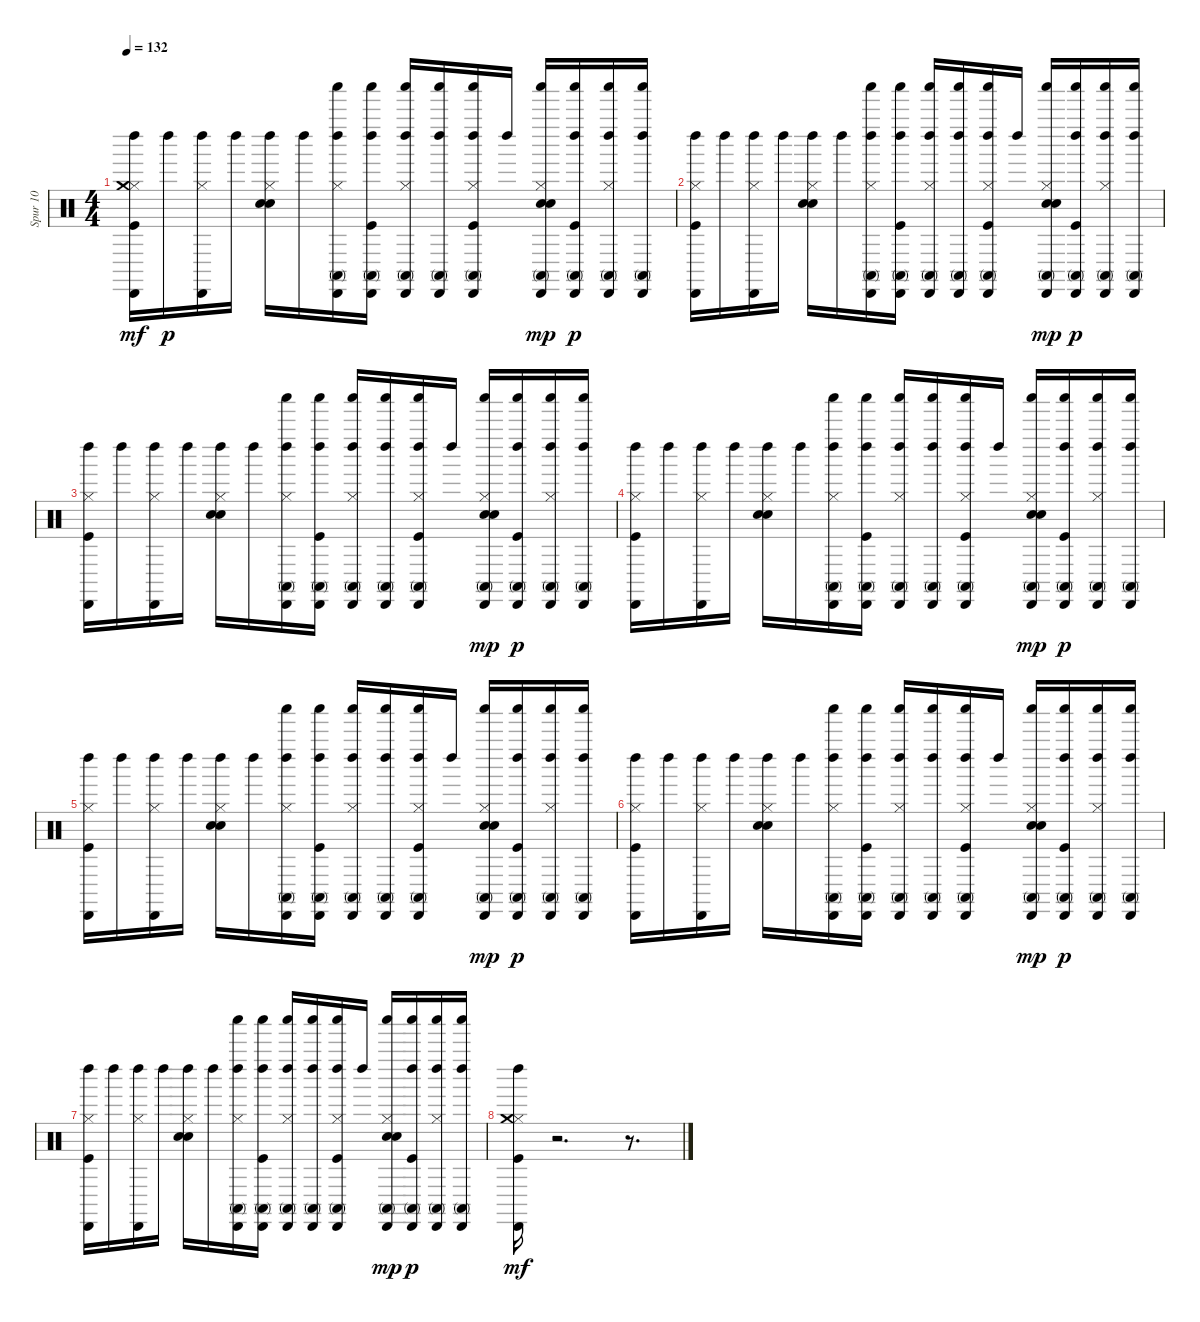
\track ("Spur 10" "Spur 10") {instrument percussion}
\staff {score}
\articulation defaults
\ts (4 4)
\tempo 132
\clef neutral
\ks c
("Kick (hit)" "Hi-Hat (closed)" "Cabasa (hit)" "Left Maraca (hit)" "Crash medium (hit)").16{dy mf} "Left Maraca (hit)".16{dy p} ("Hi-Hat (closed)" "Cabasa (hit)" "Left Maraca (hit)").16 "Left Maraca (hit)".16 ("Hi-Hat (closed)" "Snare (hit) 2" "Hand Clap (hit)" "Left Maraca (hit)").16 "Left Maraca (hit)".16 ("Shaker (hit)" "Hi-Hat (closed)" "Cabasa (hit)" "Conga high (mute)" "Left Maraca (hit)").16 ("Shaker (hit)" "Kick (hit)" "Cabasa (hit)" "Conga high (mute)" "Left Maraca (hit)").16 ("Shaker (hit)" "Hi-Hat (closed)" "Cabasa (hit)" "Conga high (mute)" "Left Maraca (hit)").16 ("Shaker (hit)" "Cabasa (hit)" "Conga high (mute)" "Left Maraca (hit)").16 ("Shaker (hit)" "Kick (hit)" "Hi-Hat (closed)" "Cabasa (hit)" "Conga high (mute)" "Left Maraca (hit)").16 "Left Maraca (hit)".16 ("Shaker (hit)" "Hi-Hat (closed)" "Snare (hit) 2" "Cabasa (hit)" "Conga high (mute)" "Hand Clap (hit)").16{dy mp} ("Shaker (hit)" "Kick (hit)" "Cabasa (hit)" "Conga high (mute)" "Left Maraca (hit)").16{dy p} ("Shaker (hit)" "Hi-Hat (closed)" "Cabasa (hit)" "Conga high (mute)" "Left Maraca (hit)").16 ("Shaker (hit)" "Cabasa (hit)" "Conga high (mute)" "Left Maraca (hit)").16 |
("Kick (hit)" "Hi-Hat (closed)" "Cabasa (hit)" "Left Maraca (hit)").16 "Left Maraca (hit)".16 ("Hi-Hat (closed)" "Cabasa (hit)" "Left Maraca (hit)").16 "Left Maraca (hit)".16 ("Hi-Hat (closed)" "Snare (hit) 2" "Hand Clap (hit)" "Left Maraca (hit)").16 "Left Maraca (hit)".16 ("Shaker (hit)" "Hi-Hat (closed)" "Cabasa (hit)" "Conga high (mute)" "Left Maraca (hit)").16 ("Shaker (hit)" "Kick (hit)" "Cabasa (hit)" "Conga high (mute)" "Left Maraca (hit)").16 ("Shaker (hit)" "Hi-Hat (closed)" "Cabasa (hit)" "Conga high (mute)" "Left Maraca (hit)").16 ("Shaker (hit)" "Cabasa (hit)" "Conga high (mute)" "Left Maraca (hit)").16 ("Shaker (hit)" "Kick (hit)" "Hi-Hat (closed)" "Cabasa (hit)" "Conga high (mute)" "Left Maraca (hit)").16 "Left Maraca (hit)".16 ("Shaker (hit)" "Hi-Hat (closed)" "Snare (hit) 2" "Cabasa (hit)" "Conga high (mute)" "Hand Clap (hit)").16{dy mp} ("Shaker (hit)" "Kick (hit)" "Cabasa (hit)" "Conga high (mute)" "Left Maraca (hit)").16{dy p} ("Shaker (hit)" "Hi-Hat (closed)" "Cabasa (hit)" "Conga high (mute)" "Left Maraca (hit)").16 ("Shaker (hit)" "Cabasa (hit)" "Conga high (mute)" "Left Maraca (hit)").16 |
("Kick (hit)" "Hi-Hat (closed)" "Cabasa (hit)" "Left Maraca (hit)").16 "Left Maraca (hit)".16 ("Hi-Hat (closed)" "Cabasa (hit)" "Left Maraca (hit)").16 "Left Maraca (hit)".16 ("Hi-Hat (closed)" "Snare (hit) 2" "Hand Clap (hit)" "Left Maraca (hit)").16 "Left Maraca (hit)".16 ("Shaker (hit)" "Hi-Hat (closed)" "Cabasa (hit)" "Conga high (mute)" "Left Maraca (hit)").16 ("Shaker (hit)" "Kick (hit)" "Cabasa (hit)" "Conga high (mute)" "Left Maraca (hit)").16 ("Shaker (hit)" "Hi-Hat (closed)" "Cabasa (hit)" "Conga high (mute)" "Left Maraca (hit)").16 ("Shaker (hit)" "Cabasa (hit)" "Conga high (mute)" "Left Maraca (hit)").16 ("Shaker (hit)" "Kick (hit)" "Hi-Hat (closed)" "Cabasa (hit)" "Conga high (mute)" "Left Maraca (hit)").16 "Left Maraca (hit)".16 ("Shaker (hit)" "Hi-Hat (closed)" "Snare (hit) 2" "Cabasa (hit)" "Conga high (mute)" "Hand Clap (hit)").16{dy mp} ("Shaker (hit)" "Kick (hit)" "Cabasa (hit)" "Conga high (mute)" "Left Maraca (hit)").16{dy p} ("Shaker (hit)" "Hi-Hat (closed)" "Cabasa (hit)" "Conga high (mute)" "Left Maraca (hit)").16 ("Shaker (hit)" "Cabasa (hit)" "Conga high (mute)" "Left Maraca (hit)").16 |
("Kick (hit)" "Hi-Hat (closed)" "Cabasa (hit)" "Left Maraca (hit)").16 "Left Maraca (hit)".16 ("Hi-Hat (closed)" "Cabasa (hit)" "Left Maraca (hit)").16 "Left Maraca (hit)".16 ("Hi-Hat (closed)" "Snare (hit) 2" "Hand Clap (hit)" "Left Maraca (hit)").16 "Left Maraca (hit)".16 ("Shaker (hit)" "Hi-Hat (closed)" "Conga high (mute)" "Cabasa (hit)" "Left Maraca (hit)").16 ("Shaker (hit)" "Kick (hit)" "Conga high (mute)" "Cabasa (hit)" "Left Maraca (hit)").16 ("Shaker (hit)" "Hi-Hat (closed)" "Conga high (mute)" "Cabasa (hit)" "Left Maraca (hit)").16 ("Shaker (hit)" "Conga high (mute)" "Cabasa (hit)" "Left Maraca (hit)").16 ("Shaker (hit)" "Kick (hit)" "Hi-Hat (closed)" "Conga high (mute)" "Cabasa (hit)" "Left Maraca (hit)").16 "Left Maraca (hit)".16 ("Shaker (hit)" "Hi-Hat (closed)" "Snare (hit) 2" "Conga high (mute)" "Cabasa (hit)" "Hand Clap (hit)").16{dy mp} ("Shaker (hit)" "Kick (hit)" "Conga high (mute)" "Cabasa (hit)" "Left Maraca (hit)").16{dy p} ("Shaker (hit)" "Hi-Hat (closed)" "Conga high (mute)" "Cabasa (hit)" "Left Maraca (hit)").16 ("Shaker (hit)" "Conga high (mute)" "Cabasa (hit)" "Left Maraca (hit)").16 |
("Kick (hit)" "Hi-Hat (closed)" "Left Maraca (hit)" "Cabasa (hit)").16 "Left Maraca (hit)".16 ("Hi-Hat (closed)" "Left Maraca (hit)" "Cabasa (hit)").16 "Left Maraca (hit)".16 ("Hi-Hat (closed)" "Snare (hit) 2" "Hand Clap (hit)" "Left Maraca (hit)").16 "Left Maraca (hit)".16 ("Shaker (hit)" "Hi-Hat (closed)" "Cabasa (hit)" "Conga high (mute)" "Left Maraca (hit)").16 ("Shaker (hit)" "Kick (hit)" "Cabasa (hit)" "Conga high (mute)" "Left Maraca (hit)").16 ("Shaker (hit)" "Hi-Hat (closed)" "Cabasa (hit)" "Conga high (mute)" "Left Maraca (hit)").16 ("Shaker (hit)" "Cabasa (hit)" "Conga high (mute)" "Left Maraca (hit)").16 ("Shaker (hit)" "Kick (hit)" "Hi-Hat (closed)" "Cabasa (hit)" "Conga high (mute)" "Left Maraca (hit)").16 "Left Maraca (hit)".16 ("Shaker (hit)" "Hi-Hat (closed)" "Snare (hit) 2" "Cabasa (hit)" "Conga high (mute)" "Hand Clap (hit)").16{dy mp} ("Shaker (hit)" "Kick (hit)" "Cabasa (hit)" "Conga high (mute)" "Left Maraca (hit)").16{dy p} ("Shaker (hit)" "Hi-Hat (closed)" "Cabasa (hit)" "Conga high (mute)" "Left Maraca (hit)").16 ("Shaker (hit)" "Cabasa (hit)" "Conga high (mute)" "Left Maraca (hit)").16 |
("Kick (hit)" "Hi-Hat (closed)" "Cabasa (hit)" "Left Maraca (hit)").16 "Left Maraca (hit)".16 ("Hi-Hat (closed)" "Cabasa (hit)" "Left Maraca (hit)").16 "Left Maraca (hit)".16 ("Hi-Hat (closed)" "Snare (hit) 2" "Hand Clap (hit)" "Left Maraca (hit)").16 "Left Maraca (hit)".16 ("Shaker (hit)" "Hi-Hat (closed)" "Cabasa (hit)" "Conga high (mute)" "Left Maraca (hit)").16 ("Shaker (hit)" "Kick (hit)" "Cabasa (hit)" "Conga high (mute)" "Left Maraca (hit)").16 ("Shaker (hit)" "Hi-Hat (closed)" "Cabasa (hit)" "Conga high (mute)" "Left Maraca (hit)").16 ("Shaker (hit)" "Cabasa (hit)" "Conga high (mute)" "Left Maraca (hit)").16 ("Shaker (hit)" "Kick (hit)" "Hi-Hat (closed)" "Cabasa (hit)" "Conga high (mute)" "Left Maraca (hit)").16 "Left Maraca (hit)".16 ("Shaker (hit)" "Hi-Hat (closed)" "Snare (hit) 2" "Cabasa (hit)" "Conga high (mute)" "Hand Clap (hit)").16{dy mp} ("Shaker (hit)" "Kick (hit)" "Cabasa (hit)" "Conga high (mute)" "Left Maraca (hit)").16{dy p} ("Shaker (hit)" "Hi-Hat (closed)" "Cabasa (hit)" "Conga high (mute)" "Left Maraca (hit)").16 ("Shaker (hit)" "Cabasa (hit)" "Conga high (mute)" "Left Maraca (hit)").16 |
("Kick (hit)" "Hi-Hat (closed)" "Cabasa (hit)" "Left Maraca (hit)").16 "Left Maraca (hit)".16 ("Hi-Hat (closed)" "Cabasa (hit)" "Left Maraca (hit)").16 "Left Maraca (hit)".16 ("Hi-Hat (closed)" "Snare (hit) 2" "Hand Clap (hit)" "Left Maraca (hit)").16 "Left Maraca (hit)".16 ("Shaker (hit)" "Hi-Hat (closed)" "Cabasa (hit)" "Conga high (mute)" "Left Maraca (hit)").16 ("Shaker (hit)" "Kick (hit)" "Cabasa (hit)" "Conga high (mute)" "Left Maraca (hit)").16 ("Shaker (hit)" "Hi-Hat (closed)" "Cabasa (hit)" "Conga high (mute)" "Left Maraca (hit)").16 ("Shaker (hit)" "Cabasa (hit)" "Conga high (mute)" "Left Maraca (hit)").16 ("Shaker (hit)" "Kick (hit)" "Hi-Hat (closed)" "Cabasa (hit)" "Conga high (mute)" "Left Maraca (hit)").16 "Left Maraca (hit)".16 ("Shaker (hit)" "Hi-Hat (closed)" "Snare (hit) 2" "Cabasa (hit)" "Conga high (mute)" "Hand Clap (hit)").16{dy mp} ("Shaker (hit)" "Kick (hit)" "Cabasa (hit)" "Conga high (mute)" "Left Maraca (hit)").16{dy p} ("Shaker (hit)" "Hi-Hat (closed)" "Cabasa (hit)" "Conga high (mute)" "Left Maraca (hit)").16 ("Shaker (hit)" "Cabasa (hit)" "Conga high (mute)" "Left Maraca (hit)").16 |
("Kick (hit)" "Hi-Hat (closed)" "Cabasa (hit)" "Left Maraca (hit)" "Crash medium (hit)").16{dy mf} r.2{d} r.8{d}
